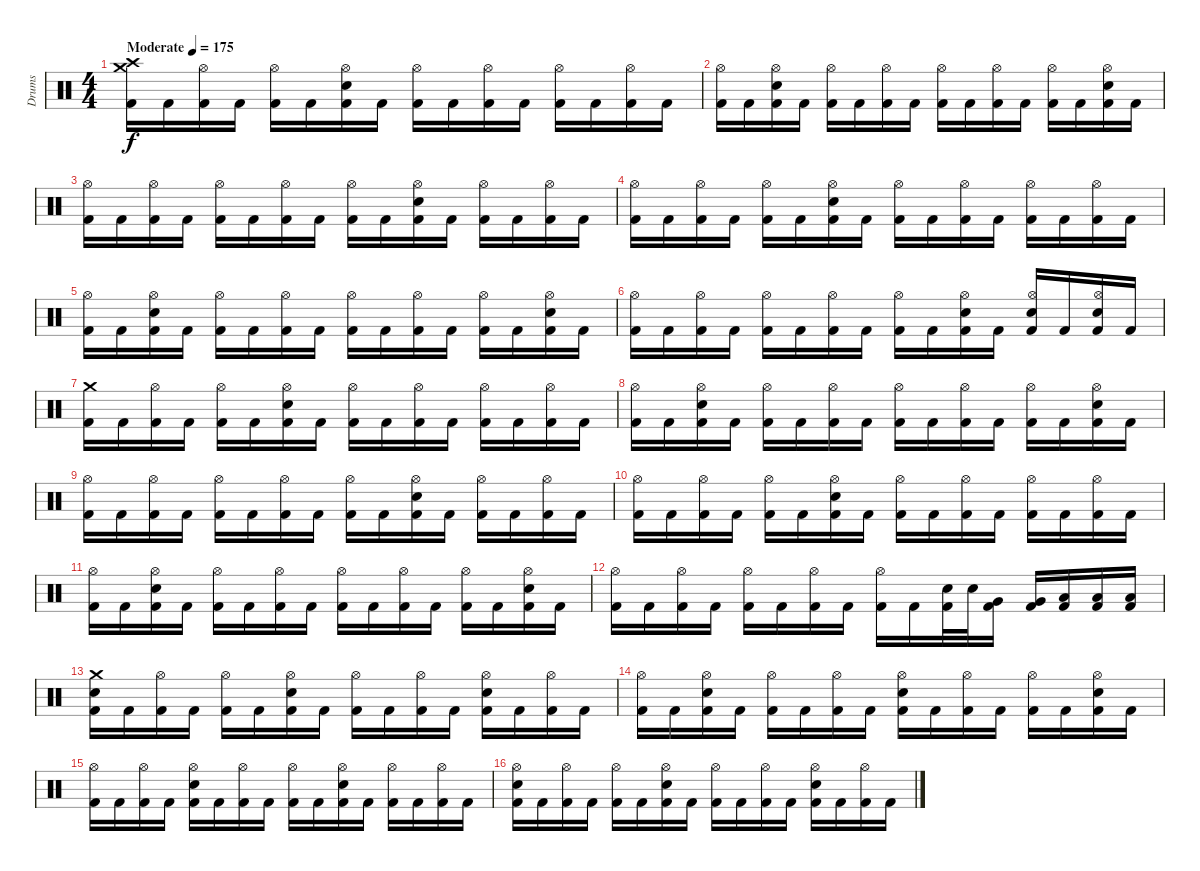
\track ("Drums" "Drums") {instrument percussion}
\staff {score}
\articulation defaults
\ts (4 4)
\tempo (175 "Moderate")
\clef neutral
\ks c
("Crash medium (hit)" "Crash high (hit)" "Kick (hit) 2").16{dy f} "Kick (hit) 2".16 ("Hi-Hat (open)" "Kick (hit) 2").16 "Kick (hit) 2".16 ("Hi-Hat (open)" "Kick (hit) 2").16 "Kick (hit) 2".16 ("Hi-Hat (open)" "Electric Snare (hit)" "Kick (hit) 2").16 "Kick (hit) 2".16 ("Hi-Hat (open)" "Kick (hit) 2").16 "Kick (hit) 2".16 ("Hi-Hat (open)" "Kick (hit) 2").16 "Kick (hit) 2".16 ("Hi-Hat (open)" "Kick (hit) 2").16 "Kick (hit) 2".16 ("Hi-Hat (open)" "Kick (hit) 2").16 "Kick (hit) 2".16 |
("Hi-Hat (open)" "Kick (hit) 2").16 "Kick (hit) 2".16 ("Hi-Hat (open)" "Electric Snare (hit)" "Kick (hit) 2").16 "Kick (hit) 2".16 ("Hi-Hat (open)" "Kick (hit) 2").16 "Kick (hit) 2".16 ("Hi-Hat (open)" "Kick (hit) 2").16 "Kick (hit) 2".16 ("Hi-Hat (open)" "Kick (hit) 2").16 "Kick (hit) 2".16 ("Hi-Hat (open)" "Kick (hit) 2").16 "Kick (hit) 2".16 ("Hi-Hat (open)" "Kick (hit) 2").16 "Kick (hit) 2".16 ("Hi-Hat (open)" "Electric Snare (hit)" "Kick (hit) 2").16 "Kick (hit) 2".16 |
("Hi-Hat (open)" "Kick (hit) 2").16 "Kick (hit) 2".16 ("Hi-Hat (open)" "Kick (hit) 2").16 "Kick (hit) 2".16 ("Hi-Hat (open)" "Kick (hit) 2").16 "Kick (hit) 2".16 ("Hi-Hat (open)" "Kick (hit) 2").16 "Kick (hit) 2".16 ("Hi-Hat (open)" "Kick (hit) 2").16 "Kick (hit) 2".16 ("Hi-Hat (open)" "Electric Snare (hit)" "Kick (hit) 2").16 "Kick (hit) 2".16 ("Hi-Hat (open)" "Kick (hit) 2").16 "Kick (hit) 2".16 ("Hi-Hat (open)" "Kick (hit) 2").16 "Kick (hit) 2".16 |
("Hi-Hat (open)" "Kick (hit) 2").16 "Kick (hit) 2".16 ("Hi-Hat (open)" "Kick (hit) 2").16 "Kick (hit) 2".16 ("Hi-Hat (open)" "Kick (hit) 2").16 "Kick (hit) 2".16 ("Hi-Hat (open)" "Electric Snare (hit)" "Kick (hit) 2").16 "Kick (hit) 2".16 ("Hi-Hat (open)" "Kick (hit) 2").16 "Kick (hit) 2".16 ("Hi-Hat (open)" "Kick (hit) 2").16 "Kick (hit) 2".16 ("Hi-Hat (open)" "Kick (hit) 2").16 "Kick (hit) 2".16 ("Hi-Hat (open)" "Kick (hit) 2").16 "Kick (hit) 2".16 |
("Hi-Hat (open)" "Kick (hit) 2").16 "Kick (hit) 2".16 ("Hi-Hat (open)" "Electric Snare (hit)" "Kick (hit) 2").16 "Kick (hit) 2".16 ("Hi-Hat (open)" "Kick (hit) 2").16 "Kick (hit) 2".16 ("Hi-Hat (open)" "Kick (hit) 2").16 "Kick (hit) 2".16 ("Hi-Hat (open)" "Kick (hit) 2").16 "Kick (hit) 2".16 ("Hi-Hat (open)" "Kick (hit) 2").16 "Kick (hit) 2".16 ("Hi-Hat (open)" "Kick (hit) 2").16 "Kick (hit) 2".16 ("Hi-Hat (open)" "Electric Snare (hit)" "Kick (hit) 2").16 "Kick (hit) 2".16 |
("Hi-Hat (open)" "Kick (hit) 2").16 "Kick (hit) 2".16 ("Hi-Hat (open)" "Kick (hit) 2").16 "Kick (hit) 2".16 ("Hi-Hat (open)" "Kick (hit) 2").16 "Kick (hit) 2".16 ("Hi-Hat (open)" "Kick (hit) 2").16 "Kick (hit) 2".16 ("Hi-Hat (open)" "Kick (hit) 2").16 "Kick (hit) 2".16 ("Hi-Hat (open)" "Electric Snare (hit)" "Kick (hit) 2").16 "Kick (hit) 2".16 ("Hi-Hat (open)" "Electric Snare (hit)" "Kick (hit) 2").16 "Kick (hit) 2".16 ("Hi-Hat (open)" "Electric Snare (hit)" "Kick (hit) 2").16 "Kick (hit) 2".16 |
("Crash medium (hit)" "Kick (hit) 2").16 "Kick (hit) 2".16 ("Hi-Hat (open)" "Kick (hit) 2").16 "Kick (hit) 2".16 ("Hi-Hat (open)" "Kick (hit) 2").16 "Kick (hit) 2".16 ("Hi-Hat (open)" "Electric Snare (hit)" "Kick (hit) 2").16 "Kick (hit) 2".16 ("Hi-Hat (open)" "Kick (hit) 2").16 "Kick (hit) 2".16 ("Hi-Hat (open)" "Kick (hit) 2").16 "Kick (hit) 2".16 ("Hi-Hat (open)" "Kick (hit) 2").16 "Kick (hit) 2".16 ("Hi-Hat (open)" "Kick (hit) 2").16 "Kick (hit) 2".16 |
("Hi-Hat (open)" "Kick (hit) 2").16 "Kick (hit) 2".16 ("Hi-Hat (open)" "Electric Snare (hit)" "Kick (hit) 2").16 "Kick (hit) 2".16 ("Hi-Hat (open)" "Kick (hit) 2").16 "Kick (hit) 2".16 ("Hi-Hat (open)" "Kick (hit) 2").16 "Kick (hit) 2".16 ("Hi-Hat (open)" "Kick (hit) 2").16 "Kick (hit) 2".16 ("Hi-Hat (open)" "Kick (hit) 2").16 "Kick (hit) 2".16 ("Hi-Hat (open)" "Kick (hit) 2").16 "Kick (hit) 2".16 ("Hi-Hat (open)" "Electric Snare (hit)" "Kick (hit) 2").16 "Kick (hit) 2".16 |
("Hi-Hat (open)" "Kick (hit) 2").16 "Kick (hit) 2".16 ("Hi-Hat (open)" "Kick (hit) 2").16 "Kick (hit) 2".16 ("Hi-Hat (open)" "Kick (hit) 2").16 "Kick (hit) 2".16 ("Hi-Hat (open)" "Kick (hit) 2").16 "Kick (hit) 2".16 ("Hi-Hat (open)" "Kick (hit) 2").16 "Kick (hit) 2".16 ("Hi-Hat (open)" "Electric Snare (hit)" "Kick (hit) 2").16 "Kick (hit) 2".16 ("Hi-Hat (open)" "Kick (hit) 2").16 "Kick (hit) 2".16 ("Hi-Hat (open)" "Kick (hit) 2").16 "Kick (hit) 2".16 |
("Hi-Hat (open)" "Kick (hit) 2").16 "Kick (hit) 2".16 ("Hi-Hat (open)" "Kick (hit) 2").16 "Kick (hit) 2".16 ("Hi-Hat (open)" "Kick (hit) 2").16 "Kick (hit) 2".16 ("Hi-Hat (open)" "Electric Snare (hit)" "Kick (hit) 2").16 "Kick (hit) 2".16 ("Hi-Hat (open)" "Kick (hit) 2").16 "Kick (hit) 2".16 ("Hi-Hat (open)" "Kick (hit) 2").16 "Kick (hit) 2".16 ("Hi-Hat (open)" "Kick (hit) 2").16 "Kick (hit) 2".16 ("Hi-Hat (open)" "Kick (hit) 2").16 "Kick (hit) 2".16 |
("Hi-Hat (open)" "Kick (hit) 2").16 "Kick (hit) 2".16 ("Hi-Hat (open)" "Electric Snare (hit)" "Kick (hit) 2").16 "Kick (hit) 2".16 ("Hi-Hat (open)" "Kick (hit) 2").16 "Kick (hit) 2".16 ("Hi-Hat (open)" "Kick (hit) 2").16 "Kick (hit) 2".16 ("Hi-Hat (open)" "Kick (hit) 2").16 "Kick (hit) 2".16 ("Hi-Hat (open)" "Kick (hit) 2").16 "Kick (hit) 2".16 ("Hi-Hat (open)" "Kick (hit) 2").16 "Kick (hit) 2".16 ("Hi-Hat (open)" "Electric Snare (hit)" "Kick (hit) 2").16 "Kick (hit) 2".16 |
("Hi-Hat (open)" "Kick (hit) 2").16 "Kick (hit) 2".16 ("Hi-Hat (open)" "Kick (hit) 2").16 "Kick (hit) 2".16 ("Hi-Hat (open)" "Kick (hit) 2").16 "Kick (hit) 2".16 ("Hi-Hat (open)" "Kick (hit) 2").16 "Kick (hit) 2".16 ("Hi-Hat (open)" "Kick (hit) 2").16 "Kick (hit) 2".16 ("Electric Snare (hit)" "Kick (hit) 2").32 "Electric Snare (hit)".32 ("Very Low Tom (hit)" "Kick (hit) 2").16 ("Very Low Tom (hit)" "Kick (hit) 2").16 ("Low Floor Tom (hit)" "Kick (hit) 2").16 ("Low Floor Tom (hit)" "Kick (hit) 2").16 ("Low Floor Tom (hit)" "Kick (hit) 2").16 |
("Crash medium (hit)" "Electric Snare (hit)" "Kick (hit) 2").16 "Kick (hit) 2".16 ("Hi-Hat (open)" "Kick (hit) 2").16 "Kick (hit) 2".16 ("Hi-Hat (open)" "Kick (hit) 2").16 "Kick (hit) 2".16 ("Hi-Hat (open)" "Electric Snare (hit)" "Kick (hit) 2").16 "Kick (hit) 2".16 ("Hi-Hat (open)" "Kick (hit) 2").16 "Kick (hit) 2".16 ("Hi-Hat (open)" "Kick (hit) 2").16 "Kick (hit) 2".16 ("Hi-Hat (open)" "Electric Snare (hit)" "Kick (hit) 2").16 "Kick (hit) 2".16 ("Hi-Hat (open)" "Kick (hit) 2").16 "Kick (hit) 2".16 |
("Hi-Hat (open)" "Kick (hit) 2").16 "Kick (hit) 2".16 ("Hi-Hat (open)" "Electric Snare (hit)" "Kick (hit) 2").16 "Kick (hit) 2".16 ("Hi-Hat (open)" "Kick (hit) 2").16 "Kick (hit) 2".16 ("Hi-Hat (open)" "Kick (hit) 2").16 "Kick (hit) 2".16 ("Hi-Hat (open)" "Electric Snare (hit)" "Kick (hit) 2").16 "Kick (hit) 2".16 ("Hi-Hat (open)" "Kick (hit) 2").16 "Kick (hit) 2".16 ("Hi-Hat (open)" "Kick (hit) 2").16 "Kick (hit) 2".16 ("Hi-Hat (open)" "Electric Snare (hit)" "Kick (hit) 2").16 "Kick (hit) 2".16 |
("Hi-Hat (open)" "Kick (hit) 2").16 "Kick (hit) 2".16 ("Hi-Hat (open)" "Kick (hit) 2").16 "Kick (hit) 2".16 ("Hi-Hat (open)" "Electric Snare (hit)" "Kick (hit) 2").16 "Kick (hit) 2".16 ("Hi-Hat (open)" "Kick (hit) 2").16 "Kick (hit) 2".16 ("Hi-Hat (open)" "Kick (hit) 2").16 "Kick (hit) 2".16 ("Hi-Hat (open)" "Electric Snare (hit)" "Kick (hit) 2").16 "Kick (hit) 2".16 ("Hi-Hat (open)" "Kick (hit) 2").16 "Kick (hit) 2".16 ("Hi-Hat (open)" "Kick (hit) 2").16 "Kick (hit) 2".16 |
("Hi-Hat (open)" "Electric Snare (hit)" "Kick (hit) 2").16 "Kick (hit) 2".16 ("Hi-Hat (open)" "Kick (hit) 2").16 "Kick (hit) 2".16 ("Hi-Hat (open)" "Kick (hit) 2").16 "Kick (hit) 2".16 ("Hi-Hat (open)" "Electric Snare (hit)" "Kick (hit) 2").16 "Kick (hit) 2".16 ("Hi-Hat (open)" "Kick (hit) 2").16 "Kick (hit) 2".16 ("Hi-Hat (open)" "Kick (hit) 2").16 "Kick (hit) 2".16 ("Hi-Hat (open)" "Electric Snare (hit)" "Kick (hit) 2").16 "Kick (hit) 2".16 ("Hi-Hat (open)" "Kick (hit) 2").16 "Kick (hit) 2".16
